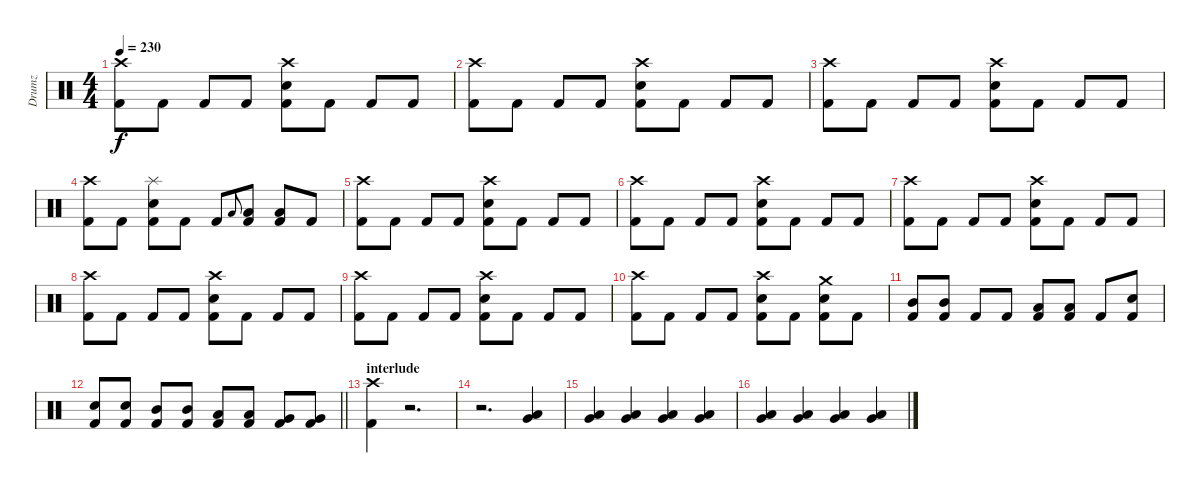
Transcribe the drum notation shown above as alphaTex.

\track ("Drumz" "Drumz") {instrument percussion}
\staff {score}
\articulation defaults
\ts (4 4)
\tempo 230
\clef neutral
\ks c
("Crash high (hit)" "Kick (hit) 2").8{dy f} "Kick (hit) 2".8 "Kick (hit) 2".8 "Kick (hit) 2".8 ("Crash high (hit)" "Electric Snare (hit)" "Kick (hit) 2").8 "Kick (hit) 2".8 "Kick (hit) 2".8 "Kick (hit) 2".8 |
("Crash high (hit)" "Kick (hit) 2").8 "Kick (hit) 2".8 "Kick (hit) 2".8 "Kick (hit) 2".8 ("Crash high (hit)" "Electric Snare (hit)" "Kick (hit) 2").8 "Kick (hit) 2".8 "Kick (hit) 2".8 "Kick (hit) 2".8 |
("Crash high (hit)" "Kick (hit) 2").8 "Kick (hit) 2".8 "Kick (hit) 2".8 "Kick (hit) 2".8 ("Crash high (hit)" "Electric Snare (hit)" "Kick (hit) 2").8 "Kick (hit) 2".8 "Kick (hit) 2".8 "Kick (hit) 2".8 |
("Crash high (hit)" "Kick (hit) 2").8 "Kick (hit) 2".8 ("Splash (hit)" "Electric Snare (hit)" "Kick (hit) 2").8 "Kick (hit) 2".8 "Kick (hit) 2".8 "Low Tom (hit)".8{gr onbeat} ("Low Tom (hit)" "Kick (hit) 2").8 ("Low Tom (hit)" "Kick (hit) 2").8 "Kick (hit) 2".8 |
("Crash high (hit)" "Kick (hit) 2").8 "Kick (hit) 2".8 "Kick (hit) 2".8 "Kick (hit) 2".8 ("Crash high (hit)" "Electric Snare (hit)" "Kick (hit) 2").8 "Kick (hit) 2".8 "Kick (hit) 2".8 "Kick (hit) 2".8 |
("Crash high (hit)" "Kick (hit) 2").8 "Kick (hit) 2".8 "Kick (hit) 2".8 "Kick (hit) 2".8 ("Crash high (hit)" "Electric Snare (hit)" "Kick (hit) 2").8 "Kick (hit) 2".8 "Kick (hit) 2".8 "Kick (hit) 2".8 |
("Crash high (hit)" "Kick (hit) 2").8 "Kick (hit) 2".8 "Kick (hit) 2".8 "Kick (hit) 2".8 ("Crash high (hit)" "Electric Snare (hit)" "Kick (hit) 2").8 "Kick (hit) 2".8 "Kick (hit) 2".8 "Kick (hit) 2".8 |
("Crash high (hit)" "Kick (hit) 2").8 "Kick (hit) 2".8 "Kick (hit) 2".8 "Kick (hit) 2".8 ("Crash high (hit)" "Electric Snare (hit)" "Kick (hit) 2").8 "Kick (hit) 2".8 "Kick (hit) 2".8 "Kick (hit) 2".8 |
("Crash high (hit)" "Kick (hit) 2").8 "Kick (hit) 2".8 "Kick (hit) 2".8 "Kick (hit) 2".8 ("Crash high (hit)" "Electric Snare (hit)" "Kick (hit) 2").8 "Kick (hit) 2".8 "Kick (hit) 2".8 "Kick (hit) 2".8 |
("Crash high (hit)" "Kick (hit) 2").8 "Kick (hit) 2".8 "Kick (hit) 2".8 "Kick (hit) 2".8 ("Crash high (hit)" "Electric Snare (hit)" "Kick (hit) 2").8 "Kick (hit) 2".8 ("Crash medium (hit)" "Electric Snare (hit)" "Kick (hit) 2").8 "Kick (hit) 2".8 |
("Mid Tom (hit)" "Kick (hit) 2").8 ("Mid Tom (hit)" "Kick (hit) 2").8 "Kick (hit) 2".8 "Kick (hit) 2".8 ("Low Tom (hit)" "Kick (hit) 2").8 ("Low Tom (hit)" "Kick (hit) 2").8 "Kick (hit) 2".8 ("Electric Snare (hit)" "Kick (hit) 2").8 |
\barLineRight lightlight
("Electric Snare (hit)" "Kick (hit) 2").8 ("Electric Snare (hit)" "Kick (hit) 2").8 ("Mid Tom (hit)" "Kick (hit) 2").8 ("Mid Tom (hit)" "Kick (hit) 2").8 ("Low Tom (hit)" "Kick (hit) 2").8 ("Low Tom (hit)" "Kick (hit) 2").8 ("Very Low Tom (hit)" "Kick (hit) 2").8 ("Very Low Tom (hit)" "Kick (hit) 2").8 |
\section ("" "interlude")
("Crash high (hit)" "Kick (hit) 2").4 r.2{d volume 0} |
r.2{d} ("Low Tom (hit)" "Very Low Tom (hit)").4{volume 15} |
("Low Tom (hit)" "Very Low Tom (hit)").4 ("Low Tom (hit)" "Very Low Tom (hit)").4 ("Low Tom (hit)" "Very Low Tom (hit)").4 ("Low Tom (hit)" "Very Low Tom (hit)").4 |
("Low Tom (hit)" "Very Low Tom (hit)").4 ("Low Tom (hit)" "Very Low Tom (hit)").4 ("Low Tom (hit)" "Very Low Tom (hit)").4 ("Low Tom (hit)" "Very Low Tom (hit)").4
